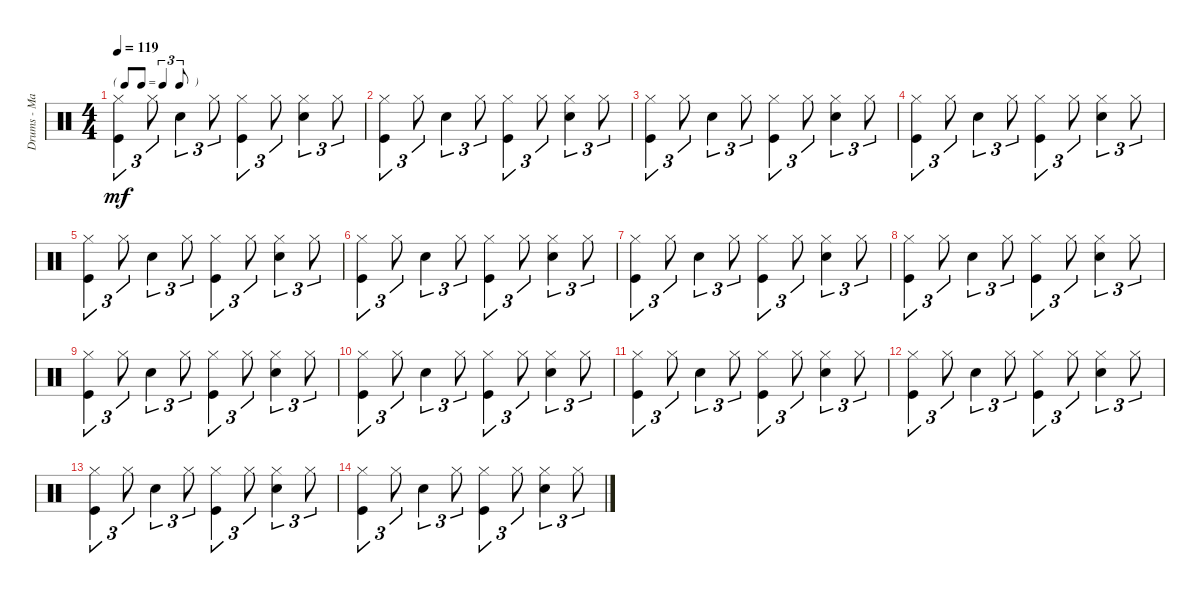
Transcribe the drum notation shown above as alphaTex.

\track ("Drums - Mason" "Drums - Ma") {instrument percussion}
\staff {score}
\articulation defaults
\ts (4 4)
\tf triplet8th
\tempo 119
\clef neutral
\ks c
("Hi-Hat (closed)" "Kick (hit)").4{tu (3 2) dy mf} "Hi-Hat (closed)".8{tu (3 2)} "Snare (hit) 2".4{tu (3 2)} "Hi-Hat (closed)".8{tu (3 2)} ("Hi-Hat (closed)" "Kick (hit)").4{tu (3 2)} "Hi-Hat (closed)".8{tu (3 2)} ("Hi-Hat (closed)" "Snare (hit) 2").4{tu (3 2)} "Hi-Hat (closed)".8{tu (3 2)} |
("Hi-Hat (closed)" "Kick (hit)").4{tu (3 2)} "Hi-Hat (closed)".8{tu (3 2)} "Snare (hit) 2".4{tu (3 2)} "Hi-Hat (closed)".8{tu (3 2)} ("Hi-Hat (closed)" "Kick (hit)").4{tu (3 2)} "Hi-Hat (closed)".8{tu (3 2)} ("Hi-Hat (closed)" "Snare (hit) 2").4{tu (3 2)} "Hi-Hat (closed)".8{tu (3 2)} |
("Hi-Hat (closed)" "Kick (hit)").4{tu (3 2)} "Hi-Hat (closed)".8{tu (3 2)} "Snare (hit) 2".4{tu (3 2)} "Hi-Hat (closed)".8{tu (3 2)} ("Hi-Hat (closed)" "Kick (hit)").4{tu (3 2)} "Hi-Hat (closed)".8{tu (3 2)} ("Hi-Hat (closed)" "Snare (hit) 2").4{tu (3 2)} "Hi-Hat (closed)".8{tu (3 2)} |
("Hi-Hat (closed)" "Kick (hit)").4{tu (3 2)} "Hi-Hat (closed)".8{tu (3 2)} "Snare (hit) 2".4{tu (3 2)} "Hi-Hat (closed)".8{tu (3 2)} ("Hi-Hat (closed)" "Kick (hit)").4{tu (3 2)} "Hi-Hat (closed)".8{tu (3 2)} ("Hi-Hat (closed)" "Snare (hit) 2").4{tu (3 2)} "Hi-Hat (closed)".8{tu (3 2)} |
("Hi-Hat (closed)" "Kick (hit)").4{tu (3 2)} "Hi-Hat (closed)".8{tu (3 2)} "Snare (hit) 2".4{tu (3 2)} "Hi-Hat (closed)".8{tu (3 2)} ("Hi-Hat (closed)" "Kick (hit)").4{tu (3 2)} "Hi-Hat (closed)".8{tu (3 2)} ("Hi-Hat (closed)" "Snare (hit) 2").4{tu (3 2)} "Hi-Hat (closed)".8{tu (3 2)} |
("Hi-Hat (closed)" "Kick (hit)").4{tu (3 2)} "Hi-Hat (closed)".8{tu (3 2)} "Snare (hit) 2".4{tu (3 2)} "Hi-Hat (closed)".8{tu (3 2)} ("Hi-Hat (closed)" "Kick (hit)").4{tu (3 2)} "Hi-Hat (closed)".8{tu (3 2)} ("Hi-Hat (closed)" "Snare (hit) 2").4{tu (3 2)} "Hi-Hat (closed)".8{tu (3 2)} |
("Hi-Hat (closed)" "Kick (hit)").4{tu (3 2)} "Hi-Hat (closed)".8{tu (3 2)} "Snare (hit) 2".4{tu (3 2)} "Hi-Hat (closed)".8{tu (3 2)} ("Hi-Hat (closed)" "Kick (hit)").4{tu (3 2)} "Hi-Hat (closed)".8{tu (3 2)} ("Hi-Hat (closed)" "Snare (hit) 2").4{tu (3 2)} "Hi-Hat (closed)".8{tu (3 2)} |
("Hi-Hat (closed)" "Kick (hit)").4{tu (3 2)} "Hi-Hat (closed)".8{tu (3 2)} "Snare (hit) 2".4{tu (3 2)} "Hi-Hat (closed)".8{tu (3 2)} ("Hi-Hat (closed)" "Kick (hit)").4{tu (3 2)} "Hi-Hat (closed)".8{tu (3 2)} ("Hi-Hat (closed)" "Snare (hit) 2").4{tu (3 2)} "Hi-Hat (closed)".8{tu (3 2)} |
("Hi-Hat (closed)" "Kick (hit)").4{tu (3 2)} "Hi-Hat (closed)".8{tu (3 2)} "Snare (hit) 2".4{tu (3 2)} "Hi-Hat (closed)".8{tu (3 2)} ("Hi-Hat (closed)" "Kick (hit)").4{tu (3 2)} "Hi-Hat (closed)".8{tu (3 2)} ("Hi-Hat (closed)" "Snare (hit) 2").4{tu (3 2)} "Hi-Hat (closed)".8{tu (3 2)} |
("Hi-Hat (closed)" "Kick (hit)").4{tu (3 2)} "Hi-Hat (closed)".8{tu (3 2)} "Snare (hit) 2".4{tu (3 2)} "Hi-Hat (closed)".8{tu (3 2)} ("Hi-Hat (closed)" "Kick (hit)").4{tu (3 2)} "Hi-Hat (closed)".8{tu (3 2)} ("Hi-Hat (closed)" "Snare (hit) 2").4{tu (3 2)} "Hi-Hat (closed)".8{tu (3 2)} |
("Hi-Hat (closed)" "Kick (hit)").4{tu (3 2)} "Hi-Hat (closed)".8{tu (3 2)} "Snare (hit) 2".4{tu (3 2)} "Hi-Hat (closed)".8{tu (3 2)} ("Hi-Hat (closed)" "Kick (hit)").4{tu (3 2)} "Hi-Hat (closed)".8{tu (3 2)} ("Hi-Hat (closed)" "Snare (hit) 2").4{tu (3 2)} "Hi-Hat (closed)".8{tu (3 2)} |
("Hi-Hat (closed)" "Kick (hit)").4{tu (3 2)} "Hi-Hat (closed)".8{tu (3 2)} "Snare (hit) 2".4{tu (3 2)} "Hi-Hat (closed)".8{tu (3 2)} ("Hi-Hat (closed)" "Kick (hit)").4{tu (3 2)} "Hi-Hat (closed)".8{tu (3 2)} ("Hi-Hat (closed)" "Snare (hit) 2").4{tu (3 2)} "Hi-Hat (closed)".8{tu (3 2)} |
("Hi-Hat (closed)" "Kick (hit)").4{tu (3 2)} "Hi-Hat (closed)".8{tu (3 2)} "Snare (hit) 2".4{tu (3 2)} "Hi-Hat (closed)".8{tu (3 2)} ("Hi-Hat (closed)" "Kick (hit)").4{tu (3 2)} "Hi-Hat (closed)".8{tu (3 2)} ("Hi-Hat (closed)" "Snare (hit) 2").4{tu (3 2)} "Hi-Hat (closed)".8{tu (3 2)} |
("Hi-Hat (closed)" "Kick (hit)").4{tu (3 2)} "Hi-Hat (closed)".8{tu (3 2)} "Snare (hit) 2".4{tu (3 2)} "Hi-Hat (closed)".8{tu (3 2)} ("Hi-Hat (closed)" "Kick (hit)").4{tu (3 2)} "Hi-Hat (closed)".8{tu (3 2)} ("Hi-Hat (closed)" "Snare (hit) 2").4{tu (3 2)} "Hi-Hat (closed)".8{tu (3 2)}
